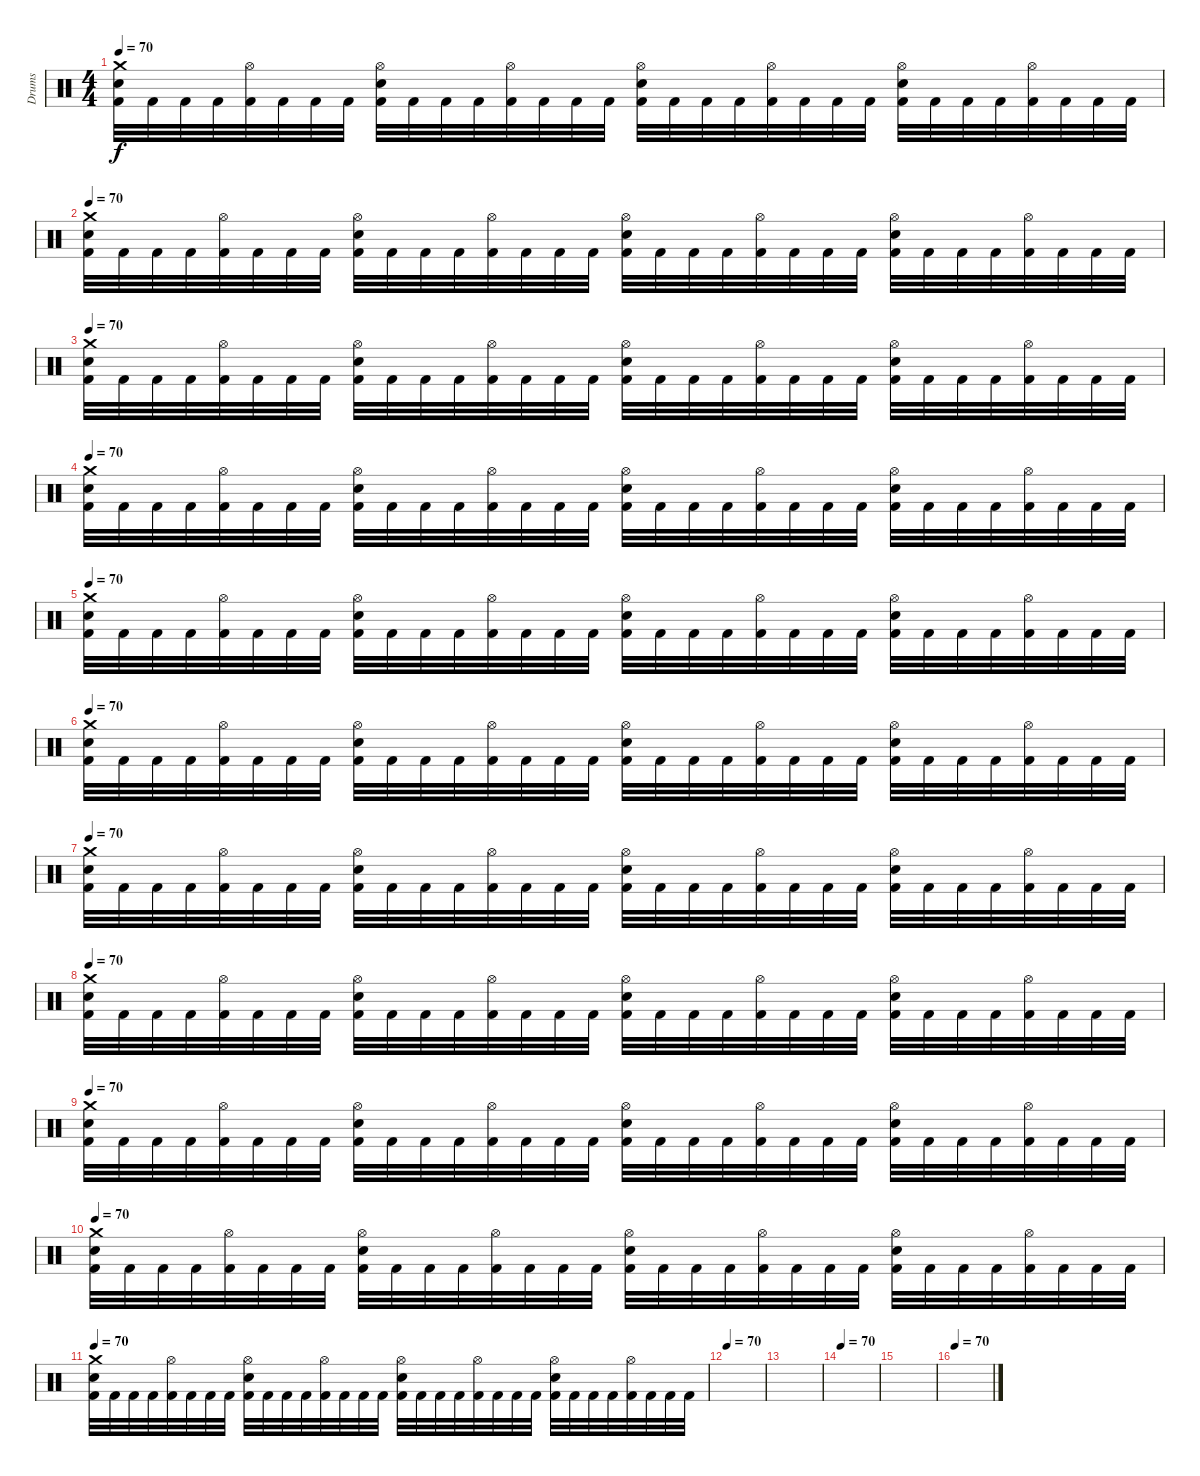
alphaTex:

\track ("Drums" "Drums") {instrument percussion}
\staff {score}
\articulation defaults
\ts (4 4)
\tempo 70
\clef neutral
\ks c
("Crash medium (hit)" "Snare (hit) 2" "Kick (hit) 2").32{dy f} "Kick (hit) 2".32 "Kick (hit) 2".32 "Kick (hit) 2".32 ("Hi-Hat (open)" "Kick (hit) 2").32 "Kick (hit) 2".32 "Kick (hit) 2".32 "Kick (hit) 2".32 ("Hi-Hat (open)" "Snare (hit) 2" "Kick (hit) 2").32 "Kick (hit) 2".32 "Kick (hit) 2".32 "Kick (hit) 2".32 ("Hi-Hat (open)" "Kick (hit) 2").32 "Kick (hit) 2".32 "Kick (hit) 2".32 "Kick (hit) 2".32 ("Hi-Hat (open)" "Snare (hit) 2" "Kick (hit) 2").32 "Kick (hit) 2".32 "Kick (hit) 2".32 "Kick (hit) 2".32 ("Hi-Hat (open)" "Kick (hit) 2").32 "Kick (hit) 2".32 "Kick (hit) 2".32 "Kick (hit) 2".32 ("Hi-Hat (open)" "Snare (hit) 2" "Kick (hit) 2").32 "Kick (hit) 2".32 "Kick (hit) 2".32 "Kick (hit) 2".32 ("Hi-Hat (open)" "Kick (hit) 2").32 "Kick (hit) 2".32 "Kick (hit) 2".32 "Kick (hit) 2".32 |
\tempo 70
("Crash medium (hit)" "Snare (hit) 2" "Kick (hit) 2").32 "Kick (hit) 2".32 "Kick (hit) 2".32 "Kick (hit) 2".32 ("Hi-Hat (open)" "Kick (hit) 2").32 "Kick (hit) 2".32 "Kick (hit) 2".32 "Kick (hit) 2".32 ("Hi-Hat (open)" "Snare (hit) 2" "Kick (hit) 2").32 "Kick (hit) 2".32 "Kick (hit) 2".32 "Kick (hit) 2".32 ("Hi-Hat (open)" "Kick (hit) 2").32 "Kick (hit) 2".32 "Kick (hit) 2".32 "Kick (hit) 2".32 ("Hi-Hat (open)" "Snare (hit) 2" "Kick (hit) 2").32 "Kick (hit) 2".32 "Kick (hit) 2".32 "Kick (hit) 2".32 ("Hi-Hat (open)" "Kick (hit) 2").32 "Kick (hit) 2".32 "Kick (hit) 2".32 "Kick (hit) 2".32 ("Hi-Hat (open)" "Snare (hit) 2" "Kick (hit) 2").32 "Kick (hit) 2".32 "Kick (hit) 2".32 "Kick (hit) 2".32 ("Hi-Hat (open)" "Kick (hit) 2").32 "Kick (hit) 2".32 "Kick (hit) 2".32 "Kick (hit) 2".32 |
\tempo 70
("Crash medium (hit)" "Snare (hit) 2" "Kick (hit) 2").32 "Kick (hit) 2".32 "Kick (hit) 2".32 "Kick (hit) 2".32 ("Hi-Hat (open)" "Kick (hit) 2").32 "Kick (hit) 2".32 "Kick (hit) 2".32 "Kick (hit) 2".32 ("Hi-Hat (open)" "Snare (hit) 2" "Kick (hit) 2").32 "Kick (hit) 2".32 "Kick (hit) 2".32 "Kick (hit) 2".32 ("Hi-Hat (open)" "Kick (hit) 2").32 "Kick (hit) 2".32 "Kick (hit) 2".32 "Kick (hit) 2".32 ("Hi-Hat (open)" "Snare (hit) 2" "Kick (hit) 2").32 "Kick (hit) 2".32 "Kick (hit) 2".32 "Kick (hit) 2".32 ("Hi-Hat (open)" "Kick (hit) 2").32 "Kick (hit) 2".32 "Kick (hit) 2".32 "Kick (hit) 2".32 ("Hi-Hat (open)" "Snare (hit) 2" "Kick (hit) 2").32 "Kick (hit) 2".32 "Kick (hit) 2".32 "Kick (hit) 2".32 ("Hi-Hat (open)" "Kick (hit) 2").32 "Kick (hit) 2".32 "Kick (hit) 2".32 "Kick (hit) 2".32 |
\tempo 70
("Crash medium (hit)" "Snare (hit) 2" "Kick (hit) 2").32{volume 6} "Kick (hit) 2".32 "Kick (hit) 2".32 "Kick (hit) 2".32 ("Hi-Hat (open)" "Kick (hit) 2").32 "Kick (hit) 2".32 "Kick (hit) 2".32 "Kick (hit) 2".32 ("Hi-Hat (open)" "Snare (hit) 2" "Kick (hit) 2").32 "Kick (hit) 2".32 "Kick (hit) 2".32 "Kick (hit) 2".32 ("Hi-Hat (open)" "Kick (hit) 2").32 "Kick (hit) 2".32 "Kick (hit) 2".32 "Kick (hit) 2".32 ("Hi-Hat (open)" "Snare (hit) 2" "Kick (hit) 2").32 "Kick (hit) 2".32 "Kick (hit) 2".32 "Kick (hit) 2".32 ("Hi-Hat (open)" "Kick (hit) 2").32 "Kick (hit) 2".32 "Kick (hit) 2".32 "Kick (hit) 2".32 ("Hi-Hat (open)" "Snare (hit) 2" "Kick (hit) 2").32 "Kick (hit) 2".32 "Kick (hit) 2".32 "Kick (hit) 2".32 ("Hi-Hat (open)" "Kick (hit) 2").32 "Kick (hit) 2".32 "Kick (hit) 2".32 "Kick (hit) 2".32 |
\tempo 70
("Crash medium (hit)" "Snare (hit) 2" "Kick (hit) 2").32 "Kick (hit) 2".32 "Kick (hit) 2".32 "Kick (hit) 2".32 ("Hi-Hat (open)" "Kick (hit) 2").32 "Kick (hit) 2".32 "Kick (hit) 2".32 "Kick (hit) 2".32 ("Hi-Hat (open)" "Snare (hit) 2" "Kick (hit) 2").32 "Kick (hit) 2".32 "Kick (hit) 2".32 "Kick (hit) 2".32 ("Hi-Hat (open)" "Kick (hit) 2").32 "Kick (hit) 2".32 "Kick (hit) 2".32 "Kick (hit) 2".32 ("Hi-Hat (open)" "Snare (hit) 2" "Kick (hit) 2").32 "Kick (hit) 2".32 "Kick (hit) 2".32 "Kick (hit) 2".32 ("Hi-Hat (open)" "Kick (hit) 2").32 "Kick (hit) 2".32 "Kick (hit) 2".32 "Kick (hit) 2".32 ("Hi-Hat (open)" "Snare (hit) 2" "Kick (hit) 2").32 "Kick (hit) 2".32 "Kick (hit) 2".32 "Kick (hit) 2".32 ("Hi-Hat (open)" "Kick (hit) 2").32 "Kick (hit) 2".32 "Kick (hit) 2".32 "Kick (hit) 2".32 |
\tempo 70
("Crash medium (hit)" "Snare (hit) 2" "Kick (hit) 2").32 "Kick (hit) 2".32 "Kick (hit) 2".32 "Kick (hit) 2".32 ("Hi-Hat (open)" "Kick (hit) 2").32 "Kick (hit) 2".32 "Kick (hit) 2".32 "Kick (hit) 2".32 ("Hi-Hat (open)" "Snare (hit) 2" "Kick (hit) 2").32 "Kick (hit) 2".32 "Kick (hit) 2".32 "Kick (hit) 2".32 ("Hi-Hat (open)" "Kick (hit) 2").32 "Kick (hit) 2".32 "Kick (hit) 2".32 "Kick (hit) 2".32 ("Hi-Hat (open)" "Snare (hit) 2" "Kick (hit) 2").32 "Kick (hit) 2".32 "Kick (hit) 2".32 "Kick (hit) 2".32 ("Hi-Hat (open)" "Kick (hit) 2").32 "Kick (hit) 2".32 "Kick (hit) 2".32 "Kick (hit) 2".32 ("Hi-Hat (open)" "Snare (hit) 2" "Kick (hit) 2").32 "Kick (hit) 2".32 "Kick (hit) 2".32 "Kick (hit) 2".32 ("Hi-Hat (open)" "Kick (hit) 2").32 "Kick (hit) 2".32 "Kick (hit) 2".32 "Kick (hit) 2".32 |
\tempo 70
("Crash medium (hit)" "Snare (hit) 2" "Kick (hit) 2").32 "Kick (hit) 2".32 "Kick (hit) 2".32 "Kick (hit) 2".32 ("Hi-Hat (open)" "Kick (hit) 2").32 "Kick (hit) 2".32 "Kick (hit) 2".32 "Kick (hit) 2".32 ("Hi-Hat (open)" "Snare (hit) 2" "Kick (hit) 2").32 "Kick (hit) 2".32 "Kick (hit) 2".32 "Kick (hit) 2".32 ("Hi-Hat (open)" "Kick (hit) 2").32 "Kick (hit) 2".32 "Kick (hit) 2".32 "Kick (hit) 2".32 ("Hi-Hat (open)" "Snare (hit) 2" "Kick (hit) 2").32 "Kick (hit) 2".32 "Kick (hit) 2".32 "Kick (hit) 2".32 ("Hi-Hat (open)" "Kick (hit) 2").32 "Kick (hit) 2".32 "Kick (hit) 2".32 "Kick (hit) 2".32 ("Hi-Hat (open)" "Snare (hit) 2" "Kick (hit) 2").32 "Kick (hit) 2".32 "Kick (hit) 2".32 "Kick (hit) 2".32 ("Hi-Hat (open)" "Kick (hit) 2").32 "Kick (hit) 2".32 "Kick (hit) 2".32 "Kick (hit) 2".32 |
\tempo 70
("Crash medium (hit)" "Snare (hit) 2" "Kick (hit) 2").32{volume 0} "Kick (hit) 2".32 "Kick (hit) 2".32 "Kick (hit) 2".32 ("Hi-Hat (open)" "Kick (hit) 2").32 "Kick (hit) 2".32 "Kick (hit) 2".32 "Kick (hit) 2".32 ("Hi-Hat (open)" "Snare (hit) 2" "Kick (hit) 2").32 "Kick (hit) 2".32 "Kick (hit) 2".32 "Kick (hit) 2".32 ("Hi-Hat (open)" "Kick (hit) 2").32 "Kick (hit) 2".32 "Kick (hit) 2".32 "Kick (hit) 2".32 ("Hi-Hat (open)" "Snare (hit) 2" "Kick (hit) 2").32 "Kick (hit) 2".32 "Kick (hit) 2".32 "Kick (hit) 2".32 ("Hi-Hat (open)" "Kick (hit) 2").32 "Kick (hit) 2".32 "Kick (hit) 2".32 "Kick (hit) 2".32 ("Hi-Hat (open)" "Snare (hit) 2" "Kick (hit) 2").32 "Kick (hit) 2".32 "Kick (hit) 2".32 "Kick (hit) 2".32 ("Hi-Hat (open)" "Kick (hit) 2").32 "Kick (hit) 2".32 "Kick (hit) 2".32 "Kick (hit) 2".32 |
\tempo 70
("Crash medium (hit)" "Snare (hit) 2" "Kick (hit) 2").32 "Kick (hit) 2".32 "Kick (hit) 2".32 "Kick (hit) 2".32 ("Hi-Hat (open)" "Kick (hit) 2").32 "Kick (hit) 2".32 "Kick (hit) 2".32 "Kick (hit) 2".32 ("Hi-Hat (open)" "Snare (hit) 2" "Kick (hit) 2").32 "Kick (hit) 2".32 "Kick (hit) 2".32 "Kick (hit) 2".32 ("Hi-Hat (open)" "Kick (hit) 2").32 "Kick (hit) 2".32 "Kick (hit) 2".32 "Kick (hit) 2".32 ("Hi-Hat (open)" "Snare (hit) 2" "Kick (hit) 2").32 "Kick (hit) 2".32 "Kick (hit) 2".32 "Kick (hit) 2".32 ("Hi-Hat (open)" "Kick (hit) 2").32 "Kick (hit) 2".32 "Kick (hit) 2".32 "Kick (hit) 2".32 ("Hi-Hat (open)" "Snare (hit) 2" "Kick (hit) 2").32 "Kick (hit) 2".32 "Kick (hit) 2".32 "Kick (hit) 2".32 ("Hi-Hat (open)" "Kick (hit) 2").32 "Kick (hit) 2".32 "Kick (hit) 2".32 "Kick (hit) 2".32 |
\tempo 70
("Crash medium (hit)" "Snare (hit) 2" "Kick (hit) 2").32 "Kick (hit) 2".32 "Kick (hit) 2".32 "Kick (hit) 2".32 ("Hi-Hat (open)" "Kick (hit) 2").32 "Kick (hit) 2".32 "Kick (hit) 2".32 "Kick (hit) 2".32 ("Hi-Hat (open)" "Snare (hit) 2" "Kick (hit) 2").32 "Kick (hit) 2".32 "Kick (hit) 2".32 "Kick (hit) 2".32 ("Hi-Hat (open)" "Kick (hit) 2").32 "Kick (hit) 2".32 "Kick (hit) 2".32 "Kick (hit) 2".32 ("Hi-Hat (open)" "Snare (hit) 2" "Kick (hit) 2").32 "Kick (hit) 2".32 "Kick (hit) 2".32 "Kick (hit) 2".32 ("Hi-Hat (open)" "Kick (hit) 2").32 "Kick (hit) 2".32 "Kick (hit) 2".32 "Kick (hit) 2".32 ("Hi-Hat (open)" "Snare (hit) 2" "Kick (hit) 2").32 "Kick (hit) 2".32 "Kick (hit) 2".32 "Kick (hit) 2".32 ("Hi-Hat (open)" "Kick (hit) 2").32 "Kick (hit) 2".32 "Kick (hit) 2".32 "Kick (hit) 2".32 |
\tempo 70
("Crash medium (hit)" "Snare (hit) 2" "Kick (hit) 2").32 "Kick (hit) 2".32 "Kick (hit) 2".32 "Kick (hit) 2".32 ("Hi-Hat (open)" "Kick (hit) 2").32 "Kick (hit) 2".32 "Kick (hit) 2".32 "Kick (hit) 2".32 ("Hi-Hat (open)" "Snare (hit) 2" "Kick (hit) 2").32 "Kick (hit) 2".32 "Kick (hit) 2".32 "Kick (hit) 2".32 ("Hi-Hat (open)" "Kick (hit) 2").32 "Kick (hit) 2".32 "Kick (hit) 2".32 "Kick (hit) 2".32 ("Hi-Hat (open)" "Snare (hit) 2" "Kick (hit) 2").32 "Kick (hit) 2".32 "Kick (hit) 2".32 "Kick (hit) 2".32 ("Hi-Hat (open)" "Kick (hit) 2").32 "Kick (hit) 2".32 "Kick (hit) 2".32 "Kick (hit) 2".32 ("Hi-Hat (open)" "Snare (hit) 2" "Kick (hit) 2").32 "Kick (hit) 2".32 "Kick (hit) 2".32 "Kick (hit) 2".32 ("Hi-Hat (open)" "Kick (hit) 2").32 "Kick (hit) 2".32 "Kick (hit) 2".32 "Kick (hit) 2".32 |
\tempo 70
|
|
\tempo 70
|
|
\tempo 70
